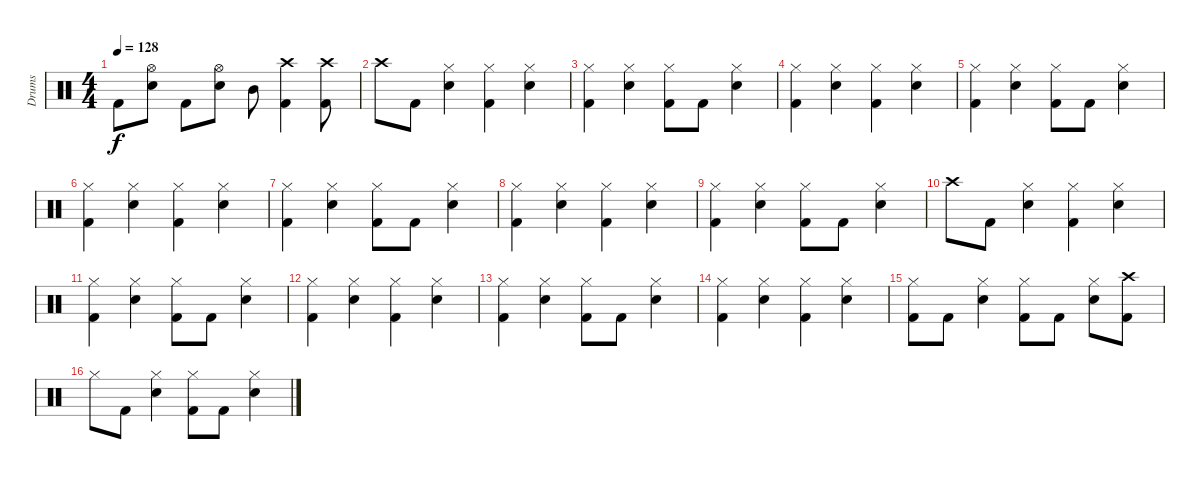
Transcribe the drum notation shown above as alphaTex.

\track ("Drums" "Drums") {instrument percussion}
\staff {score}
\articulation defaults
\ts (4 4)
\tempo 128
\clef neutral
\ks c "Kick (hit) 2".8{dy f}
("Hi-Hat (open)" "Electric Snare (hit)").8 "Kick (hit) 2".8 ("Hi-Hat (open)" "Electric Snare (hit)").8 "Mid Tom (hit)".8 ("Crash high (hit)" "Kick (hit) 2").4 ("Crash high (hit)" "Kick (hit) 2").8 |
"Crash high (hit)".8 "Kick (hit) 2".8 ("Hi-Hat (closed)" "Electric Snare (hit)").4 ("Hi-Hat (closed)" "Kick (hit) 2").4 ("Hi-Hat (closed)" "Electric Snare (hit)").4 |
("Hi-Hat (closed)" "Kick (hit) 2").4 ("Hi-Hat (closed)" "Electric Snare (hit)").4 ("Hi-Hat (closed)" "Kick (hit) 2").8 "Kick (hit) 2".8 ("Hi-Hat (closed)" "Electric Snare (hit)").4 |
("Hi-Hat (closed)" "Kick (hit) 2").4 ("Hi-Hat (closed)" "Electric Snare (hit)").4 ("Hi-Hat (closed)" "Kick (hit) 2").4 ("Hi-Hat (closed)" "Electric Snare (hit)").4 |
("Hi-Hat (closed)" "Kick (hit) 2").4 ("Hi-Hat (closed)" "Electric Snare (hit)").4 ("Hi-Hat (closed)" "Kick (hit) 2").8 "Kick (hit) 2".8 ("Hi-Hat (closed)" "Electric Snare (hit)").4 |
("Hi-Hat (closed)" "Kick (hit) 2").4 ("Hi-Hat (closed)" "Electric Snare (hit)").4 ("Hi-Hat (closed)" "Kick (hit) 2").4 ("Hi-Hat (closed)" "Electric Snare (hit)").4 |
("Hi-Hat (closed)" "Kick (hit) 2").4 ("Hi-Hat (closed)" "Electric Snare (hit)").4 ("Hi-Hat (closed)" "Kick (hit) 2").8 "Kick (hit) 2".8 ("Hi-Hat (closed)" "Electric Snare (hit)").4 |
("Hi-Hat (closed)" "Kick (hit) 2").4 ("Hi-Hat (closed)" "Electric Snare (hit)").4 ("Hi-Hat (closed)" "Kick (hit) 2").4 ("Hi-Hat (closed)" "Electric Snare (hit)").4 |
("Hi-Hat (closed)" "Kick (hit) 2").4 ("Hi-Hat (closed)" "Electric Snare (hit)").4 ("Hi-Hat (closed)" "Kick (hit) 2").8 "Kick (hit) 2".8 ("Hi-Hat (closed)" "Electric Snare (hit)").4 |
"Crash high (hit)".8 "Kick (hit) 2".8 ("Hi-Hat (closed)" "Electric Snare (hit)").4 ("Hi-Hat (closed)" "Kick (hit) 2").4 ("Hi-Hat (closed)" "Electric Snare (hit)").4 |
("Hi-Hat (closed)" "Kick (hit) 2").4 ("Hi-Hat (closed)" "Electric Snare (hit)").4 ("Hi-Hat (closed)" "Kick (hit) 2").8 "Kick (hit) 2".8 ("Hi-Hat (closed)" "Electric Snare (hit)").4 |
("Hi-Hat (closed)" "Kick (hit) 2").4 ("Hi-Hat (closed)" "Electric Snare (hit)").4 ("Hi-Hat (closed)" "Kick (hit) 2").4 ("Hi-Hat (closed)" "Electric Snare (hit)").4 |
("Hi-Hat (closed)" "Kick (hit) 2").4 ("Hi-Hat (closed)" "Electric Snare (hit)").4 ("Hi-Hat (closed)" "Kick (hit) 2").8 "Kick (hit) 2".8 ("Hi-Hat (closed)" "Electric Snare (hit)").4 |
("Hi-Hat (closed)" "Kick (hit) 2").4 ("Hi-Hat (closed)" "Electric Snare (hit)").4 ("Hi-Hat (closed)" "Kick (hit) 2").4 ("Hi-Hat (closed)" "Electric Snare (hit)").4 |
("Hi-Hat (closed)" "Kick (hit) 2").8 "Kick (hit) 2".8 ("Hi-Hat (closed)" "Electric Snare (hit)").4 ("Hi-Hat (closed)" "Kick (hit) 2").8 "Kick (hit) 2".8 ("Hi-Hat (closed)" "Electric Snare (hit)").8 ("Crash high (hit)" "Kick (hit) 2").8 |
"Hi-Hat (closed)".8 "Kick (hit) 2".8 ("Hi-Hat (closed)" "Electric Snare (hit)").4 ("Hi-Hat (closed)" "Kick (hit) 2").8 "Kick (hit) 2".8 ("Hi-Hat (closed)" "Electric Snare (hit)").4
